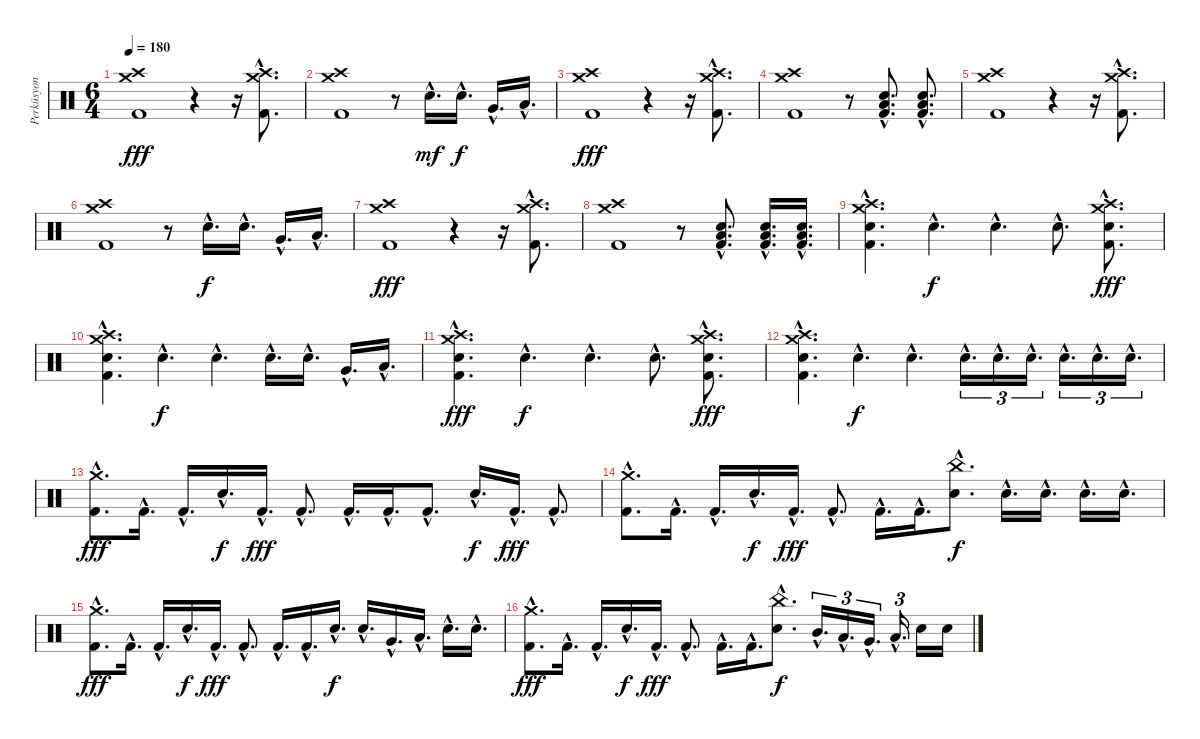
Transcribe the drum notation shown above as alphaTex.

\track ("Perküsyon" "Perküsyon") {instrument percussion}
\staff {score}
\articulation defaults
\ts (6 4)
\tempo 180
\tempo 140
\tempo 180
\clef neutral
\ks c
("Crash medium (hit)" "Crash high (hit)" "Kick (hit) 2").1{dy fff} r.4 r.16 ("Crash medium (hit)"{hac} "Crash high (hit)"{hac} "Kick (hit) 2"{hac}).8{d} |
("Crash medium (hit)" "Crash high (hit)" "Kick (hit) 2").1 r.8 "Electric Snare (hit)"{hac}.16{d dy mf} "Electric Snare (hit)"{hac}.16{d dy f} "Very Low Tom (hit)"{hac}.16{d} "Low Floor Tom (hit)"{hac}.16{d} |
("Crash medium (hit)" "Crash high (hit)" "Kick (hit) 2").1{dy fff} r.4 r.16 ("Crash medium (hit)"{hac} "Crash high (hit)"{hac} "Kick (hit) 2"{hac}).8{d} |
("Crash medium (hit)" "Crash high (hit)" "Kick (hit) 2").1 r.8 ("Electric Snare (hit)"{hac} "Low Floor Tom (hit)"{hac} "Kick (hit) 2"{hac}).8{d} ("Electric Snare (hit)"{hac} "Low Floor Tom (hit)"{hac} "Kick (hit) 2"{hac}).8{d} |
("Crash medium (hit)" "Crash high (hit)" "Kick (hit) 2").1 r.4 r.16 ("Crash medium (hit)"{hac} "Crash high (hit)"{hac} "Kick (hit) 2"{hac}).8{d} |
("Crash medium (hit)" "Crash high (hit)" "Kick (hit) 2").1 r.8 "Electric Snare (hit)"{hac}.16{d dy f} "Electric Snare (hit)"{hac}.16{d} "Very Low Tom (hit)"{hac}.16{d} "Low Floor Tom (hit)"{hac}.16{d} |
("Crash medium (hit)" "Crash high (hit)" "Kick (hit) 2").1{dy fff} r.4 r.16 ("Crash medium (hit)"{hac} "Crash high (hit)"{hac} "Kick (hit) 2"{hac}).8{d} |
("Crash medium (hit)" "Crash high (hit)" "Kick (hit) 2").1 r.8 ("Electric Snare (hit)"{hac} "Low Floor Tom (hit)"{hac} "Kick (hit) 2"{hac}).8{d} ("Electric Snare (hit)"{hac} "Low Floor Tom (hit)"{hac} "Kick (hit) 2"{hac}).16{d} ("Electric Snare (hit)"{hac} "Low Floor Tom (hit)"{hac} "Kick (hit) 2"{hac}).16{d} |
("Crash medium (hit)"{hac} "Crash high (hit)"{hac} "Electric Snare (hit)"{hac} "Kick (hit) 2"{hac}).4{d} "Snare (hit) 2"{hac}.4{d dy f} "Snare (hit) 2"{hac}.4{d} "Snare (hit) 2"{hac}.8{d} ("Crash medium (hit)"{hac} "Crash high (hit)"{hac} "Electric Snare (hit)"{hac} "Kick (hit) 2"{hac}).8{d dy fff} |
("Crash medium (hit)"{hac} "Crash high (hit)"{hac} "Electric Snare (hit)"{hac} "Kick (hit) 2"{hac}).4{d} "Snare (hit) 2"{hac}.4{d dy f} "Snare (hit) 2"{hac}.4{d} "Electric Snare (hit)"{hac}.16{d} "Electric Snare (hit)"{hac}.16{d} "Very Low Tom (hit)"{hac}.16{d} "Low Floor Tom (hit)"{hac}.16{d} |
("Crash medium (hit)"{hac} "Crash high (hit)"{hac} "Electric Snare (hit)"{hac} "Kick (hit) 2"{hac}).4{d dy fff} "Snare (hit) 2"{hac}.4{d dy f} "Snare (hit) 2"{hac}.4{d} "Snare (hit) 2"{hac}.8{d} ("Crash medium (hit)"{hac} "Crash high (hit)"{hac} "Electric Snare (hit)"{hac} "Kick (hit) 2"{hac}).8{d dy fff} |
("Crash medium (hit)"{hac} "Crash high (hit)"{hac} "Electric Snare (hit)"{hac} "Kick (hit) 2"{hac}).4{d} "Snare (hit) 2"{hac}.4{d dy f} "Snare (hit) 2"{hac}.4{d} "Electric Snare (hit)"{hac}.16{d tu (3 2)} "Electric Snare (hit)"{hac}.16{d tu (3 2)} "Electric Snare (hit)"{hac}.16{d tu (3 2)} "Electric Snare (hit)"{hac}.16{d tu (3 2)} "Electric Snare (hit)"{hac}.16{d tu (3 2)} "Electric Snare (hit)"{hac}.16{d tu (3 2)} |
("Crash medium (hit)"{hac} "Kick (hit) 2"{hac}).8{d dy fff} "Kick (hit) 2"{hac}.16{d} "Kick (hit) 2"{hac}.16{d} "Electric Snare (hit)"{hac}.16{d dy f} "Kick (hit) 2"{hac}.16{d dy fff} "Kick (hit) 2"{hac}.8{d} "Kick (hit) 2"{hac}.16{d} "Kick (hit) 2"{hac}.16{d} "Kick (hit) 2"{hac}.8{d} "Electric Snare (hit)"{hac}.16{d dy f} "Kick (hit) 2"{hac}.16{d dy fff} "Kick (hit) 2"{hac}.8{d} |
("Crash medium (hit)"{hac} "Kick (hit) 2"{hac}).8{d} "Kick (hit) 2"{hac}.16{d} "Kick (hit) 2"{hac}.16{d} "Electric Snare (hit)"{hac}.16{d dy f} "Kick (hit) 2"{hac}.16{d dy fff} "Kick (hit) 2"{hac}.8{d} "Kick (hit) 2"{hac}.16{d} "Kick (hit) 2"{hac}.16{d} ("China (hit)"{hac} "Electric Snare (hit)"{hac}).8{d dy f} "Electric Snare (hit)"{hac}.16{d} "Electric Snare (hit)"{hac}.16{d} "Electric Snare (hit)"{hac}.16{d} "Electric Snare (hit)"{hac}.16{d} |
("Crash medium (hit)"{hac} "Kick (hit) 2"{hac}).8{d dy fff} "Kick (hit) 2"{hac}.16{d} "Kick (hit) 2"{hac}.16{d} "Electric Snare (hit)"{hac}.16{d dy f} "Kick (hit) 2"{hac}.16{d dy fff} "Kick (hit) 2"{hac}.8{d} "Kick (hit) 2"{hac}.16{d} "Kick (hit) 2"{hac}.16{d} "Electric Snare (hit)"{hac}.16{d dy f} "Electric Snare (hit)"{hac}.16{d} "Very Low Tom (hit)"{hac}.16{d} "Low Floor Tom (hit)"{hac}.16{d} "Electric Snare (hit)"{hac}.16{d} "Electric Snare (hit)"{hac}.16{d} |
("Crash medium (hit)"{hac} "Kick (hit) 2"{hac}).8{d dy fff} "Kick (hit) 2"{hac}.16{d} "Kick (hit) 2"{hac}.16{d} "Electric Snare (hit)"{hac}.16{d dy f} "Kick (hit) 2"{hac}.16{d dy fff} "Kick (hit) 2"{hac}.8{d} "Kick (hit) 2"{hac}.16{d} "Kick (hit) 2"{hac}.16{d} ("China (hit)"{hac} "Electric Snare (hit)"{hac}).8{d dy f} "Mid Tom (hit)"{hac}.16{d tu (3 2)} "Low Tom (hit)"{hac}.16{d tu (3 2)} "Very Low Tom (hit)"{hac}.16{d tu (3 2)} "Low Floor Tom (hit)"{hac}.16{d tu (3 2)} "Electric Snare (hit)".16 "Electric Snare (hit)".16
